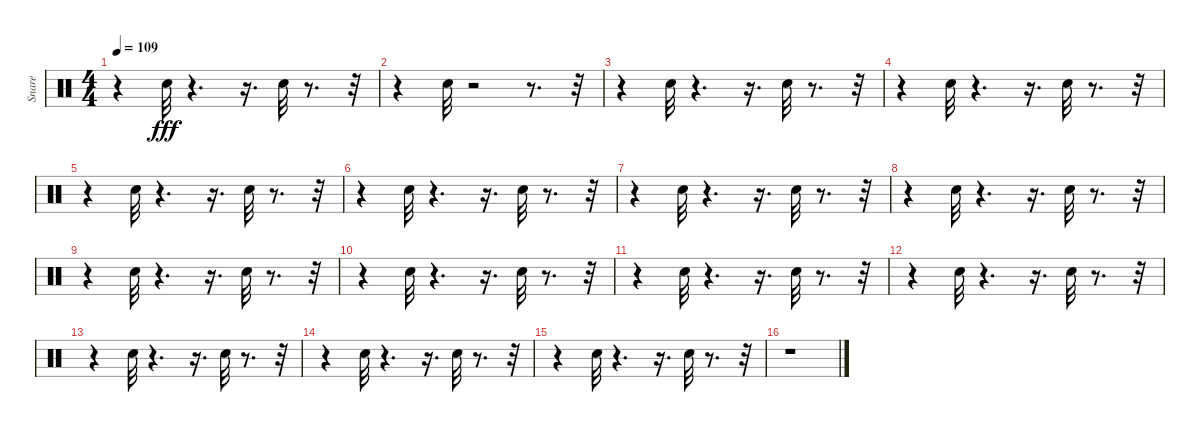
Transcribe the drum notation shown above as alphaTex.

\track ("Snare" "Snare") {instrument percussion}
\staff {score}
\articulation defaults
\ts (4 4)
\tempo 109
\clef neutral
\ks c
r.4{dy fff} "Snare (hit) 2".32 r.4{d} r.16{d} "Snare (hit) 2".32 r.8{d} r.32 |
r.4 "Snare (hit) 2".32 r.2 r.8{d} r.32 |
r.4 "Snare (hit) 2".32 r.4{d} r.16{d} "Snare (hit) 2".32 r.8{d} r.32 |
r.4 "Snare (hit) 2".32 r.4{d} r.16{d} "Snare (hit) 2".32 r.8{d} r.32 |
r.4 "Snare (hit) 2".32 r.4{d} r.16{d} "Snare (hit) 2".32 r.8{d} r.32 |
r.4 "Snare (hit) 2".32 r.4{d} r.16{d} "Snare (hit) 2".32 r.8{d} r.32 |
r.4 "Snare (hit) 2".32 r.4{d} r.16{d} "Snare (hit) 2".32 r.8{d} r.32 |
r.4 "Snare (hit) 2".32 r.4{d} r.16{d} "Snare (hit) 2".32 r.8{d} r.32 |
r.4 "Snare (hit) 2".32 r.4{d} r.16{d} "Snare (hit) 2".32 r.8{d} r.32 |
r.4 "Snare (hit) 2".32 r.4{d} r.16{d} "Snare (hit) 2".32 r.8{d} r.32 |
r.4 "Snare (hit) 2".32 r.4{d} r.16{d} "Snare (hit) 2".32 r.8{d} r.32 |
r.4 "Snare (hit) 2".32 r.4{d} r.16{d} "Snare (hit) 2".32 r.8{d} r.32 |
r.4 "Snare (hit) 2".32 r.4{d} r.16{d} "Snare (hit) 2".32 r.8{d} r.32 |
r.4 "Snare (hit) 2".32 r.4{d} r.16{d} "Snare (hit) 2".32 r.8{d} r.32 |
r.4 "Snare (hit) 2".32 r.4{d} r.16{d} "Snare (hit) 2".32 r.8{d} r.32 |
r.1
